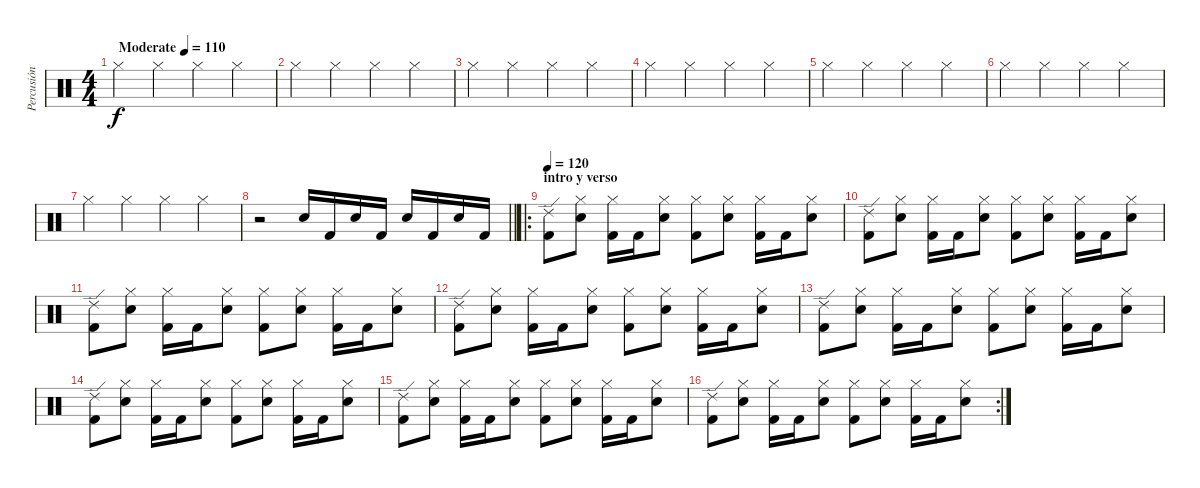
\track ("Percusión" "Percusión") {instrument percussion}
\staff {score}
\articulation defaults
\ts (4 4)
\tempo (110 "Moderate")
\clef neutral
\ks c "Hi-Hat (closed)".4{dy f} "Hi-Hat (closed)".4 "Hi-Hat (closed)".4 "Hi-Hat (closed)".4
|
"Hi-Hat (closed)".4 "Hi-Hat (closed)".4 "Hi-Hat (closed)".4 "Hi-Hat (closed)".4 |
"Hi-Hat (closed)".4 "Hi-Hat (closed)".4 "Hi-Hat (closed)".4 "Hi-Hat (closed)".4 |
"Hi-Hat (closed)".4 "Hi-Hat (closed)".4 "Hi-Hat (closed)".4 "Hi-Hat (closed)".4 |
"Hi-Hat (closed)".4 "Hi-Hat (closed)".4 "Hi-Hat (closed)".4 "Hi-Hat (closed)".4 |
"Hi-Hat (closed)".4 "Hi-Hat (closed)".4 "Hi-Hat (closed)".4 "Hi-Hat (closed)".4 |
"Hi-Hat (closed)".4 "Hi-Hat (closed)".4 "Hi-Hat (closed)".4 "Hi-Hat (closed)".4 |
\barLineRight lightlight
r.2 "Electric Snare (hit)".16 "Kick (hit) 2".16 "Electric Snare (hit)".16 "Kick (hit) 2".16 "Electric Snare (hit)".16 "Kick (hit) 2".16 "Electric Snare (hit)".16 "Kick (hit) 2".16 |
\ro
\section ("" "intro y verso")
\tempo 120
("Ride (edge) 2" "Kick (hit) 2").8 ("Hi-Hat (closed)" "Electric Snare (hit)").8 ("Hi-Hat (closed)" "Kick (hit) 2").16 "Kick (hit) 2".16 ("Hi-Hat (closed)" "Electric Snare (hit)").8 ("Hi-Hat (closed)" "Kick (hit) 2").8 ("Hi-Hat (closed)" "Electric Snare (hit)").8 ("Hi-Hat (closed)" "Kick (hit) 2").16 "Kick (hit) 2".16 ("Hi-Hat (closed)" "Electric Snare (hit)").8 |
("Ride (edge) 2" "Kick (hit) 2").8 ("Hi-Hat (closed)" "Electric Snare (hit)").8 ("Hi-Hat (closed)" "Kick (hit) 2").16 "Kick (hit) 2".16 ("Hi-Hat (closed)" "Electric Snare (hit)").8 ("Hi-Hat (closed)" "Kick (hit) 2").8 ("Hi-Hat (closed)" "Electric Snare (hit)").8 ("Hi-Hat (closed)" "Kick (hit) 2").16 "Kick (hit) 2".16 ("Hi-Hat (closed)" "Electric Snare (hit)").8 |
("Ride (edge) 2" "Kick (hit) 2").8 ("Hi-Hat (closed)" "Electric Snare (hit)").8 ("Hi-Hat (closed)" "Kick (hit) 2").16 "Kick (hit) 2".16 ("Hi-Hat (closed)" "Electric Snare (hit)").8 ("Hi-Hat (closed)" "Kick (hit) 2").8 ("Hi-Hat (closed)" "Electric Snare (hit)").8 ("Hi-Hat (closed)" "Kick (hit) 2").16 "Kick (hit) 2".16 ("Hi-Hat (closed)" "Electric Snare (hit)").8 |
("Ride (edge) 2" "Kick (hit) 2").8 ("Hi-Hat (closed)" "Electric Snare (hit)").8 ("Hi-Hat (closed)" "Kick (hit) 2").16 "Kick (hit) 2".16 ("Hi-Hat (closed)" "Electric Snare (hit)").8 ("Hi-Hat (closed)" "Kick (hit) 2").8 ("Hi-Hat (closed)" "Electric Snare (hit)").8 ("Hi-Hat (closed)" "Kick (hit) 2").16 "Kick (hit) 2".16 ("Hi-Hat (closed)" "Electric Snare (hit)").8 |
("Ride (edge) 2" "Kick (hit) 2").8 ("Hi-Hat (closed)" "Electric Snare (hit)").8 ("Hi-Hat (closed)" "Kick (hit) 2").16 "Kick (hit) 2".16 ("Hi-Hat (closed)" "Electric Snare (hit)").8 ("Hi-Hat (closed)" "Kick (hit) 2").8 ("Hi-Hat (closed)" "Electric Snare (hit)").8 ("Hi-Hat (closed)" "Kick (hit) 2").16 "Kick (hit) 2".16 ("Hi-Hat (closed)" "Electric Snare (hit)").8 |
("Ride (edge) 2" "Kick (hit) 2").8 ("Hi-Hat (closed)" "Electric Snare (hit)").8 ("Hi-Hat (closed)" "Kick (hit) 2").16 "Kick (hit) 2".16 ("Hi-Hat (closed)" "Electric Snare (hit)").8 ("Hi-Hat (closed)" "Kick (hit) 2").8 ("Hi-Hat (closed)" "Electric Snare (hit)").8 ("Hi-Hat (closed)" "Kick (hit) 2").16 "Kick (hit) 2".16 ("Hi-Hat (closed)" "Electric Snare (hit)").8 |
("Ride (edge) 2" "Kick (hit) 2").8 ("Hi-Hat (closed)" "Electric Snare (hit)").8 ("Hi-Hat (closed)" "Kick (hit) 2").16 "Kick (hit) 2".16 ("Hi-Hat (closed)" "Electric Snare (hit)").8 ("Hi-Hat (closed)" "Kick (hit) 2").8 ("Hi-Hat (closed)" "Electric Snare (hit)").8 ("Hi-Hat (closed)" "Kick (hit) 2").16 "Kick (hit) 2".16 ("Hi-Hat (closed)" "Electric Snare (hit)").8 |
\rc 2
("Ride (edge) 2" "Kick (hit) 2").8 ("Hi-Hat (closed)" "Electric Snare (hit)").8 ("Hi-Hat (closed)" "Kick (hit) 2").16 "Kick (hit) 2".16 ("Hi-Hat (closed)" "Electric Snare (hit)").8 ("Hi-Hat (closed)" "Kick (hit) 2").8 ("Hi-Hat (closed)" "Electric Snare (hit)").8 ("Hi-Hat (closed)" "Kick (hit) 2").16 "Kick (hit) 2".16 ("Hi-Hat (closed)" "Electric Snare (hit)").8
